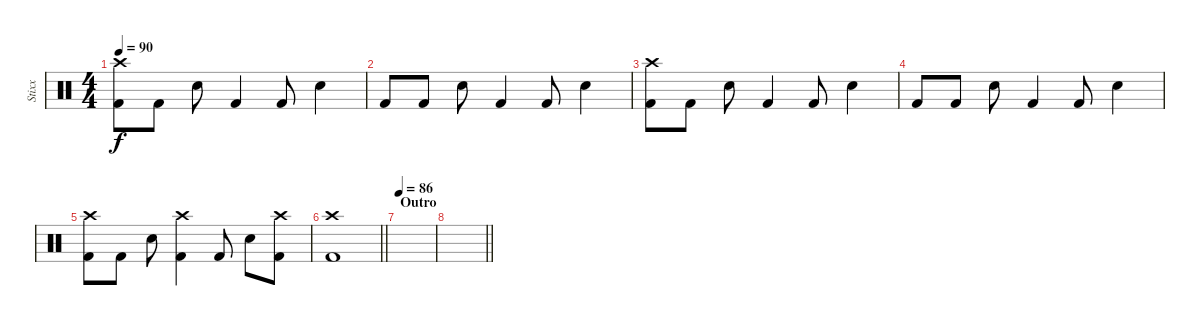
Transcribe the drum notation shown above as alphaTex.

\track ("Stixx" "Stixx") {instrument percussion}
\staff {score}
\articulation defaults
\ts (4 4)
\tempo 90
\clef neutral
\ks c
("Crash high (hit)" "Kick (hit) 2").8{dy f} "Kick (hit) 2".8 "Electric Snare (hit)".8 "Kick (hit) 2".4 "Kick (hit) 2".8 "Electric Snare (hit)".4 |
"Kick (hit) 2".8 "Kick (hit) 2".8 "Electric Snare (hit)".8 "Kick (hit) 2".4 "Kick (hit) 2".8 "Electric Snare (hit)".4 |
("Crash high (hit)" "Kick (hit) 2").8 "Kick (hit) 2".8 "Electric Snare (hit)".8 "Kick (hit) 2".4 "Kick (hit) 2".8 "Electric Snare (hit)".4 |
"Kick (hit) 2".8 "Kick (hit) 2".8 "Electric Snare (hit)".8 "Kick (hit) 2".4 "Kick (hit) 2".8 "Electric Snare (hit)".4 |
("Crash high (hit)" "Kick (hit) 2").8 "Kick (hit) 2".8 "Electric Snare (hit)".8 ("Crash high (hit)" "Kick (hit) 2").4 "Kick (hit) 2".8 "Electric Snare (hit)".8 ("Crash high (hit)" "Kick (hit) 2").8 |
\barLineRight lightlight
("Crash high (hit)" "Kick (hit) 2").1 |
\section ("" "Outro")
\tempo 86
|
\barLineRight lightlight
